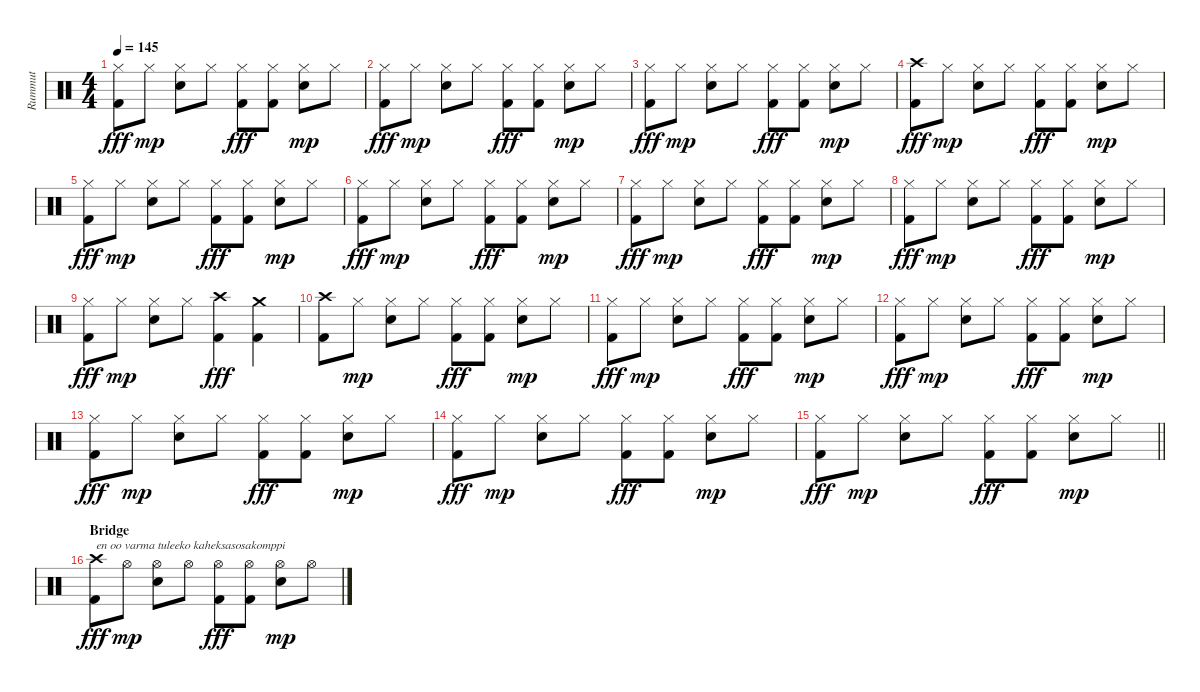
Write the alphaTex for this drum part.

\track ("Rummut" "Rummut") {instrument percussion}
\staff {score}
\articulation defaults
\ts (4 4)
\tempo 145
\clef neutral
\ks c
("Hi-Hat (closed)" "Kick (hit) 2").8{dy fff} "Hi-Hat (closed)".8{dy mp} ("Hi-Hat (closed)" "Snare (hit) 2").8 "Hi-Hat (closed)".8 ("Hi-Hat (closed)" "Kick (hit) 2").8{dy fff} ("Hi-Hat (closed)" "Kick (hit) 2").8 ("Hi-Hat (closed)" "Snare (hit) 2").8{dy mp} "Hi-Hat (closed)".8 |
("Hi-Hat (closed)" "Kick (hit) 2").8{dy fff} "Hi-Hat (closed)".8{dy mp} ("Hi-Hat (closed)" "Snare (hit) 2").8 "Hi-Hat (closed)".8 ("Hi-Hat (closed)" "Kick (hit) 2").8{dy fff} ("Hi-Hat (closed)" "Kick (hit) 2").8 ("Hi-Hat (closed)" "Snare (hit) 2").8{dy mp} "Hi-Hat (closed)".8 |
("Hi-Hat (closed)" "Kick (hit) 2").8{dy fff} "Hi-Hat (closed)".8{dy mp} ("Hi-Hat (closed)" "Snare (hit) 2").8 "Hi-Hat (closed)".8 ("Hi-Hat (closed)" "Kick (hit) 2").8{dy fff} ("Hi-Hat (closed)" "Kick (hit) 2").8 ("Hi-Hat (closed)" "Snare (hit) 2").8{dy mp} "Hi-Hat (closed)".8 |
("Crash high (hit)" "Kick (hit) 2").8{dy fff} "Hi-Hat (closed)".8{dy mp} ("Hi-Hat (closed)" "Snare (hit) 2").8 "Hi-Hat (closed)".8 ("Hi-Hat (closed)" "Kick (hit) 2").8{dy fff} ("Hi-Hat (closed)" "Kick (hit) 2").8 ("Hi-Hat (closed)" "Snare (hit) 2").8{dy mp} "Hi-Hat (closed)".8 |
("Hi-Hat (closed)" "Kick (hit) 2").8{dy fff} "Hi-Hat (closed)".8{dy mp} ("Hi-Hat (closed)" "Snare (hit) 2").8 "Hi-Hat (closed)".8 ("Hi-Hat (closed)" "Kick (hit) 2").8{dy fff} ("Hi-Hat (closed)" "Kick (hit) 2").8 ("Hi-Hat (closed)" "Snare (hit) 2").8{dy mp} "Hi-Hat (closed)".8 |
("Hi-Hat (closed)" "Kick (hit) 2").8{dy fff} "Hi-Hat (closed)".8{dy mp} ("Hi-Hat (closed)" "Snare (hit) 2").8 "Hi-Hat (closed)".8 ("Hi-Hat (closed)" "Kick (hit) 2").8{dy fff} ("Hi-Hat (closed)" "Kick (hit) 2").8 ("Hi-Hat (closed)" "Snare (hit) 2").8{dy mp} "Hi-Hat (closed)".8 |
("Hi-Hat (closed)" "Kick (hit) 2").8{dy fff} "Hi-Hat (closed)".8{dy mp} ("Hi-Hat (closed)" "Snare (hit) 2").8 "Hi-Hat (closed)".8 ("Hi-Hat (closed)" "Kick (hit) 2").8{dy fff} ("Hi-Hat (closed)" "Kick (hit) 2").8 ("Hi-Hat (closed)" "Snare (hit) 2").8{dy mp} "Hi-Hat (closed)".8 |
("Hi-Hat (closed)" "Kick (hit) 2").8{dy fff} "Hi-Hat (closed)".8{dy mp} ("Hi-Hat (closed)" "Snare (hit) 2").8 "Hi-Hat (closed)".8 ("Hi-Hat (closed)" "Kick (hit) 2").8{dy fff} ("Hi-Hat (closed)" "Kick (hit) 2").8 ("Hi-Hat (closed)" "Snare (hit) 2").8{dy mp} "Hi-Hat (closed)".8 |
("Hi-Hat (closed)" "Kick (hit) 2").8{dy fff} "Hi-Hat (closed)".8{dy mp} ("Hi-Hat (closed)" "Snare (hit) 2").8 "Hi-Hat (closed)".8 ("Crash high (hit)" "Kick (hit) 2").4{dy fff} ("Crash medium (hit)" "Kick (hit) 2").4 |
("Crash high (hit)" "Kick (hit) 2").8 "Hi-Hat (closed)".8{dy mp} ("Hi-Hat (closed)" "Snare (hit) 2").8 "Hi-Hat (closed)".8 ("Hi-Hat (closed)" "Kick (hit) 2").8{dy fff} ("Hi-Hat (closed)" "Kick (hit) 2").8 ("Hi-Hat (closed)" "Snare (hit) 2").8{dy mp} "Hi-Hat (closed)".8 |
("Hi-Hat (closed)" "Kick (hit) 2").8{dy fff} "Hi-Hat (closed)".8{dy mp} ("Hi-Hat (closed)" "Snare (hit) 2").8 "Hi-Hat (closed)".8 ("Hi-Hat (closed)" "Kick (hit) 2").8{dy fff} ("Hi-Hat (closed)" "Kick (hit) 2").8 ("Hi-Hat (closed)" "Snare (hit) 2").8{dy mp} "Hi-Hat (closed)".8 |
("Hi-Hat (closed)" "Kick (hit) 2").8{dy fff} "Hi-Hat (closed)".8{dy mp} ("Hi-Hat (closed)" "Snare (hit) 2").8 "Hi-Hat (closed)".8 ("Hi-Hat (closed)" "Kick (hit) 2").8{dy fff} ("Hi-Hat (closed)" "Kick (hit) 2").8 ("Hi-Hat (closed)" "Snare (hit) 2").8{dy mp} "Hi-Hat (closed)".8 |
("Hi-Hat (closed)" "Kick (hit) 2").8{dy fff} "Hi-Hat (closed)".8{dy mp} ("Hi-Hat (closed)" "Snare (hit) 2").8 "Hi-Hat (closed)".8 ("Hi-Hat (closed)" "Kick (hit) 2").8{dy fff} ("Hi-Hat (closed)" "Kick (hit) 2").8 ("Hi-Hat (closed)" "Snare (hit) 2").8{dy mp} "Hi-Hat (closed)".8 |
("Hi-Hat (closed)" "Kick (hit) 2").8{dy fff} "Hi-Hat (closed)".8{dy mp} ("Hi-Hat (closed)" "Snare (hit) 2").8 "Hi-Hat (closed)".8 ("Hi-Hat (closed)" "Kick (hit) 2").8{dy fff} ("Hi-Hat (closed)" "Kick (hit) 2").8 ("Hi-Hat (closed)" "Snare (hit) 2").8{dy mp} "Hi-Hat (closed)".8 |
\barLineRight lightlight
("Hi-Hat (closed)" "Kick (hit) 2").8{dy fff} "Hi-Hat (closed)".8{dy mp} ("Hi-Hat (closed)" "Snare (hit) 2").8 "Hi-Hat (closed)".8 ("Hi-Hat (closed)" "Kick (hit) 2").8{dy fff} ("Hi-Hat (closed)" "Kick (hit) 2").8 ("Hi-Hat (closed)" "Snare (hit) 2").8{dy mp} "Hi-Hat (closed)".8 |
\section ("" "Bridge")
("Crash high (hit)" "Kick (hit) 2").8{txt "en oo varma tuleeko kaheksasosakomppi" dy fff} "Hi-Hat (open)".8{dy mp} ("Hi-Hat (open)" "Snare (hit) 2").8 "Hi-Hat (open)".8 ("Hi-Hat (open)" "Kick (hit) 2").8{dy fff} ("Hi-Hat (open)" "Kick (hit) 2").8 ("Hi-Hat (open)" "Snare (hit) 2").8{dy mp} "Hi-Hat (open)".8
